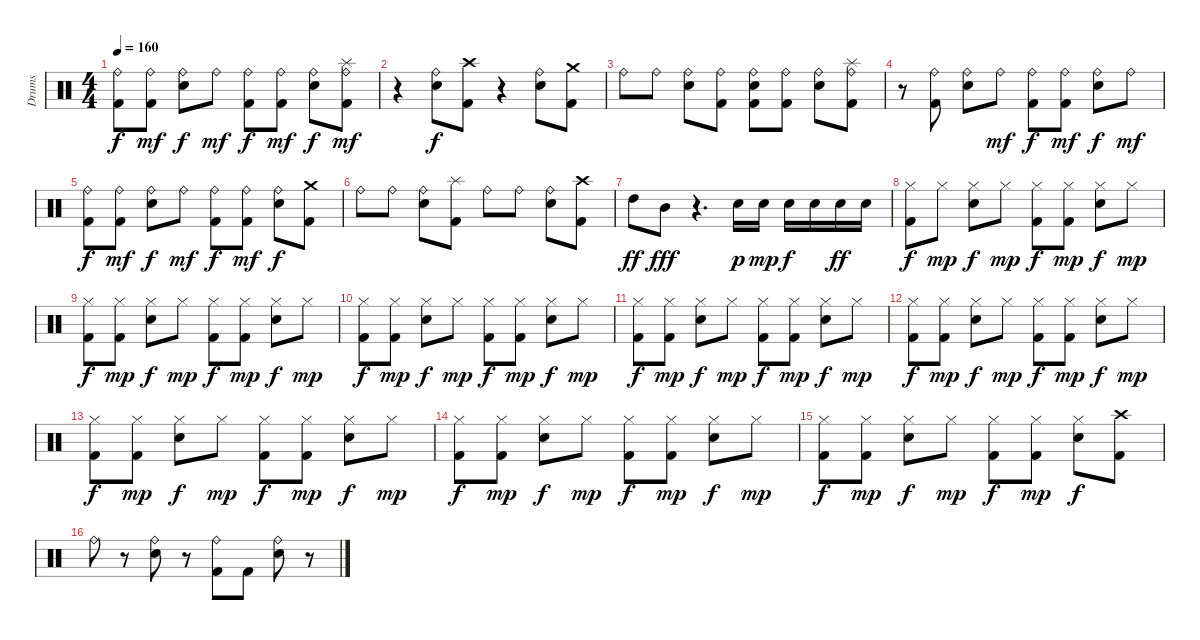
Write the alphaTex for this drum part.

\track ("Drums" "Drums") {instrument percussion}
\staff {score}
\articulation defaults
\ts (4 4)
\tempo 160
\clef neutral
\ks c
("Kick (hit) 2" "Ride (bell)").8{dy f} ("Kick (hit) 2" "Ride (bell)").8{dy mf} ("Snare (hit) 2" "Ride (bell)").8{dy f} "Ride (bell)".8{dy mf} ("Kick (hit) 2" "Ride (bell)").8{dy f} ("Kick (hit) 2" "Ride (bell)").8{dy mf} ("Snare (hit) 2" "Ride (bell)").8{dy f} ("Kick (hit) 2" "Splash (hit)" "Ride (bell)").8{dy mf} |
r.4 ("Snare (hit) 2" "Ride (bell)").8{dy f} ("Kick (hit) 2" "Crash high (hit)").8 r.4 ("Snare (hit) 2" "Ride (bell)").8 ("Kick (hit) 2" "Crash medium (hit)").8 |
"Ride (bell)".8 "Ride (bell)".8 ("Snare (hit) 2" "Ride (bell)").8 ("Kick (hit) 2" "Ride (bell)").8 ("Kick (hit) 2" "Snare (hit) 2" "Ride (bell)").8 ("Kick (hit) 2" "Ride (bell)").8 ("Snare (hit) 2" "Ride (bell)").8 ("Kick (hit) 2" "Splash (hit)" "Ride (bell)").8 |
r.8 ("Kick (hit) 2" "Ride (bell)").8 ("Snare (hit) 2" "Ride (bell)").8 "Ride (bell)".8{dy mf} ("Kick (hit) 2" "Ride (bell)").8{dy f} ("Kick (hit) 2" "Ride (bell)").8{dy mf} ("Snare (hit) 2" "Ride (bell)").8{dy f} "Ride (bell)".8{dy mf} |
("Kick (hit) 2" "Ride (bell)").8{dy f} ("Kick (hit) 2" "Ride (bell)").8{dy mf} ("Snare (hit) 2" "Ride (bell)").8{dy f} "Ride (bell)".8{dy mf} ("Kick (hit) 2" "Ride (bell)").8{dy f} ("Kick (hit) 2" "Ride (bell)").8{dy mf} ("Snare (hit) 2" "Ride (bell)").8{dy f} ("Kick (hit) 2" "Crash medium (hit)").8 |
"Ride (bell)".8 "Ride (bell)".8 ("Snare (hit) 2" "Ride (bell)").8 ("Kick (hit) 2" "Splash (hit)").8 "Ride (bell)".8 "Ride (bell)".8 ("Snare (hit) 2" "Ride (bell)").8 ("Kick (hit) 2" "Crash high (hit)").8 |
"High Tom (hit)".8{dy ff} "Mid Tom (hit)".8{dy fff} r.4{d} "Snare (hit) 2".16{dy p} "Snare (hit) 2".16{dy mp} "Snare (hit) 2".16{dy f} "Snare (hit) 2".16 "Snare (hit) 2".16{dy ff} "Snare (hit) 2".16 |
("Kick (hit) 2" "Hi-Hat (closed)").8{dy f} "Hi-Hat (closed)".8{dy mp} ("Snare (hit) 2" "Hi-Hat (closed)").8{dy f} "Hi-Hat (closed)".8{dy mp} ("Kick (hit) 2" "Hi-Hat (closed)").8{dy f} ("Kick (hit) 2" "Hi-Hat (closed)").8{dy mp} ("Snare (hit) 2" "Hi-Hat (closed)").8{dy f} "Hi-Hat (closed)".8{dy mp} |
("Kick (hit) 2" "Hi-Hat (closed)").8{dy f} ("Kick (hit) 2" "Hi-Hat (closed)").8{dy mp} ("Snare (hit) 2" "Hi-Hat (closed)").8{dy f} "Hi-Hat (closed)".8{dy mp} ("Kick (hit) 2" "Hi-Hat (closed)").8{dy f} ("Kick (hit) 2" "Hi-Hat (closed)").8{dy mp} ("Snare (hit) 2" "Hi-Hat (closed)").8{dy f} "Hi-Hat (closed)".8{dy mp} |
("Kick (hit) 2" "Hi-Hat (closed)").8{dy f} ("Kick (hit) 2" "Hi-Hat (closed)").8{dy mp} ("Snare (hit) 2" "Hi-Hat (closed)").8{dy f} "Hi-Hat (closed)".8{dy mp} ("Kick (hit) 2" "Hi-Hat (closed)").8{dy f} ("Kick (hit) 2" "Hi-Hat (closed)").8{dy mp} ("Snare (hit) 2" "Hi-Hat (closed)").8{dy f} "Hi-Hat (closed)".8{dy mp} |
("Kick (hit) 2" "Hi-Hat (closed)").8{dy f} ("Kick (hit) 2" "Hi-Hat (closed)").8{dy mp} ("Snare (hit) 2" "Hi-Hat (closed)").8{dy f} "Hi-Hat (closed)".8{dy mp} ("Kick (hit) 2" "Hi-Hat (closed)").8{dy f} ("Kick (hit) 2" "Hi-Hat (closed)").8{dy mp} ("Snare (hit) 2" "Hi-Hat (closed)").8{dy f} "Hi-Hat (closed)".8{dy mp} |
("Kick (hit) 2" "Hi-Hat (closed)").8{dy f} ("Kick (hit) 2" "Hi-Hat (closed)").8{dy mp} ("Snare (hit) 2" "Hi-Hat (closed)").8{dy f} "Hi-Hat (closed)".8{dy mp} ("Kick (hit) 2" "Hi-Hat (closed)").8{dy f} ("Kick (hit) 2" "Hi-Hat (closed)").8{dy mp} ("Snare (hit) 2" "Hi-Hat (closed)").8{dy f} "Hi-Hat (closed)".8{dy mp} |
("Kick (hit) 2" "Hi-Hat (closed)").8{dy f} ("Kick (hit) 2" "Hi-Hat (closed)").8{dy mp} ("Snare (hit) 2" "Hi-Hat (closed)").8{dy f} "Hi-Hat (closed)".8{dy mp} ("Kick (hit) 2" "Hi-Hat (closed)").8{dy f} ("Kick (hit) 2" "Hi-Hat (closed)").8{dy mp} ("Snare (hit) 2" "Hi-Hat (closed)").8{dy f} "Hi-Hat (closed)".8{dy mp} |
("Kick (hit) 2" "Hi-Hat (closed)").8{dy f} ("Kick (hit) 2" "Hi-Hat (closed)").8{dy mp} ("Snare (hit) 2" "Hi-Hat (closed)").8{dy f} "Hi-Hat (closed)".8{dy mp} ("Kick (hit) 2" "Hi-Hat (closed)").8{dy f} ("Kick (hit) 2" "Hi-Hat (closed)").8{dy mp} ("Snare (hit) 2" "Hi-Hat (closed)").8{dy f} "Hi-Hat (closed)".8{dy mp} |
("Kick (hit) 2" "Hi-Hat (closed)").8{dy f} ("Kick (hit) 2" "Hi-Hat (closed)").8{dy mp} ("Snare (hit) 2" "Hi-Hat (closed)").8{dy f} "Hi-Hat (closed)".8{dy mp} ("Kick (hit) 2" "Hi-Hat (closed)").8{dy f} ("Kick (hit) 2" "Hi-Hat (closed)").8{dy mp} ("Snare (hit) 2" "Hi-Hat (closed)").8{dy f} ("Kick (hit) 2" "Crash high (hit)").8 |
"Ride (bell)".8 r.8 ("Snare (hit) 2" "Ride (bell)").8 r.8 ("Kick (hit) 2" "Ride (bell)").8 "Kick (hit) 2".8 ("Snare (hit) 2" "Ride (bell)").8 r.8
